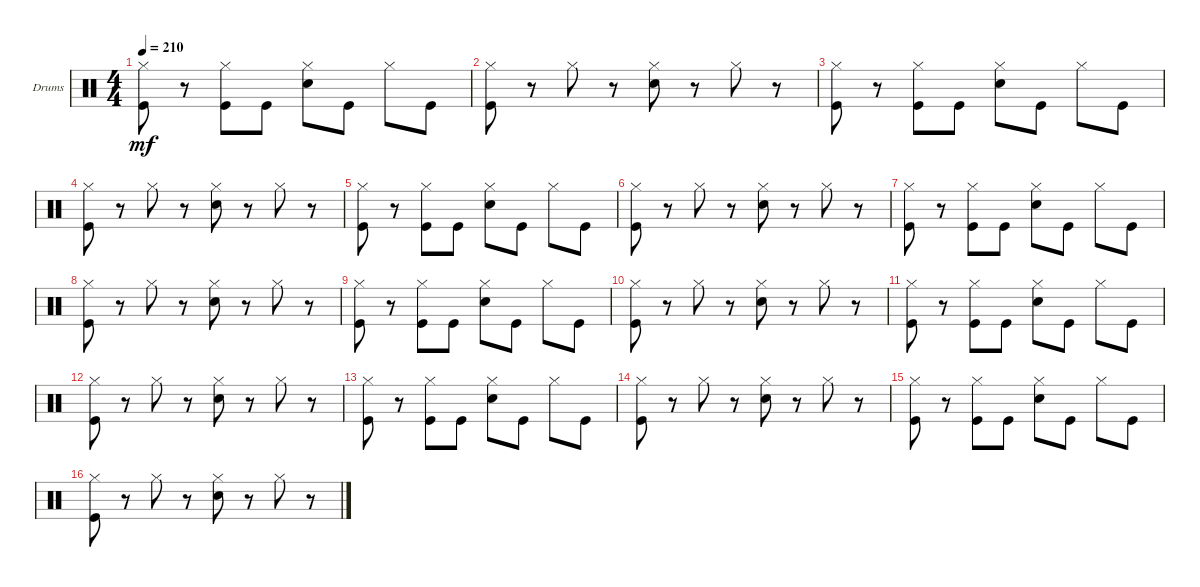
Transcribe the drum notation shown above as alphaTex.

\defaultSystemsLayout 4
\bracketExtendMode groupsimilarinstruments
\firstSystemTrackNameOrientation horizontal
\otherSystemsTrackNameOrientation horizontal
\track ("Dan Johnson (Drums)" "Drums") {instrument percussion}
\staff {score}
\articulation defaults
\ts (4 4)
\tempo 210
\clef neutral
\ks c
("Kick (hit)" "Hi-Hat (closed)").8{dy mf} r.8 ("Kick (hit)" "Hi-Hat (closed)").8 "Kick (hit)".8 ("Snare (hit) 2" "Hi-Hat (closed)").8 "Kick (hit)".8 "Hi-Hat (closed)".8 "Kick (hit)".8 |
("Kick (hit)" "Hi-Hat (closed)").8 r.8 "Hi-Hat (closed)".8 r.8 ("Snare (hit) 2" "Hi-Hat (closed)").8 r.8 "Hi-Hat (closed)".8 r.8 |
("Kick (hit)" "Hi-Hat (closed)").8 r.8 ("Kick (hit)" "Hi-Hat (closed)").8 "Kick (hit)".8 ("Snare (hit) 2" "Hi-Hat (closed)").8 "Kick (hit)".8 "Hi-Hat (closed)".8 "Kick (hit)".8 |
("Kick (hit)" "Hi-Hat (closed)").8 r.8 "Hi-Hat (closed)".8 r.8 ("Snare (hit) 2" "Hi-Hat (closed)").8 r.8 "Hi-Hat (closed)".8 r.8 |
("Kick (hit)" "Hi-Hat (closed)").8 r.8 ("Kick (hit)" "Hi-Hat (closed)").8 "Kick (hit)".8 ("Snare (hit) 2" "Hi-Hat (closed)").8 "Kick (hit)".8 "Hi-Hat (closed)".8 "Kick (hit)".8 |
("Kick (hit)" "Hi-Hat (closed)").8 r.8 "Hi-Hat (closed)".8 r.8 ("Snare (hit) 2" "Hi-Hat (closed)").8 r.8 "Hi-Hat (closed)".8 r.8 |
("Kick (hit)" "Hi-Hat (closed)").8 r.8 ("Kick (hit)" "Hi-Hat (closed)").8 "Kick (hit)".8 ("Snare (hit) 2" "Hi-Hat (closed)").8 "Kick (hit)".8 "Hi-Hat (closed)".8 "Kick (hit)".8 |
("Kick (hit)" "Hi-Hat (closed)").8 r.8 "Hi-Hat (closed)".8 r.8 ("Snare (hit) 2" "Hi-Hat (closed)").8 r.8 "Hi-Hat (closed)".8 r.8 |
("Kick (hit)" "Hi-Hat (closed)").8 r.8 ("Kick (hit)" "Hi-Hat (closed)").8 "Kick (hit)".8 ("Snare (hit) 2" "Hi-Hat (closed)").8 "Kick (hit)".8 "Hi-Hat (closed)".8 "Kick (hit)".8 |
("Kick (hit)" "Hi-Hat (closed)").8 r.8 "Hi-Hat (closed)".8 r.8 ("Snare (hit) 2" "Hi-Hat (closed)").8 r.8 "Hi-Hat (closed)".8 r.8 |
("Kick (hit)" "Hi-Hat (closed)").8 r.8 ("Kick (hit)" "Hi-Hat (closed)").8 "Kick (hit)".8 ("Snare (hit) 2" "Hi-Hat (closed)").8 "Kick (hit)".8 "Hi-Hat (closed)".8 "Kick (hit)".8 |
("Kick (hit)" "Hi-Hat (closed)").8 r.8 "Hi-Hat (closed)".8 r.8 ("Snare (hit) 2" "Hi-Hat (closed)").8 r.8 "Hi-Hat (closed)".8 r.8 |
("Kick (hit)" "Hi-Hat (closed)").8 r.8 ("Kick (hit)" "Hi-Hat (closed)").8 "Kick (hit)".8 ("Snare (hit) 2" "Hi-Hat (closed)").8 "Kick (hit)".8 "Hi-Hat (closed)".8 "Kick (hit)".8 |
("Kick (hit)" "Hi-Hat (closed)").8 r.8 "Hi-Hat (closed)".8 r.8 ("Snare (hit) 2" "Hi-Hat (closed)").8 r.8 "Hi-Hat (closed)".8 r.8 |
("Kick (hit)" "Hi-Hat (closed)").8 r.8 ("Kick (hit)" "Hi-Hat (closed)").8 "Kick (hit)".8 ("Snare (hit) 2" "Hi-Hat (closed)").8 "Kick (hit)".8 "Hi-Hat (closed)".8 "Kick (hit)".8 |
("Kick (hit)" "Hi-Hat (closed)").8 r.8 "Hi-Hat (closed)".8 r.8 ("Snare (hit) 2" "Hi-Hat (closed)").8 r.8 "Hi-Hat (closed)".8 r.8
